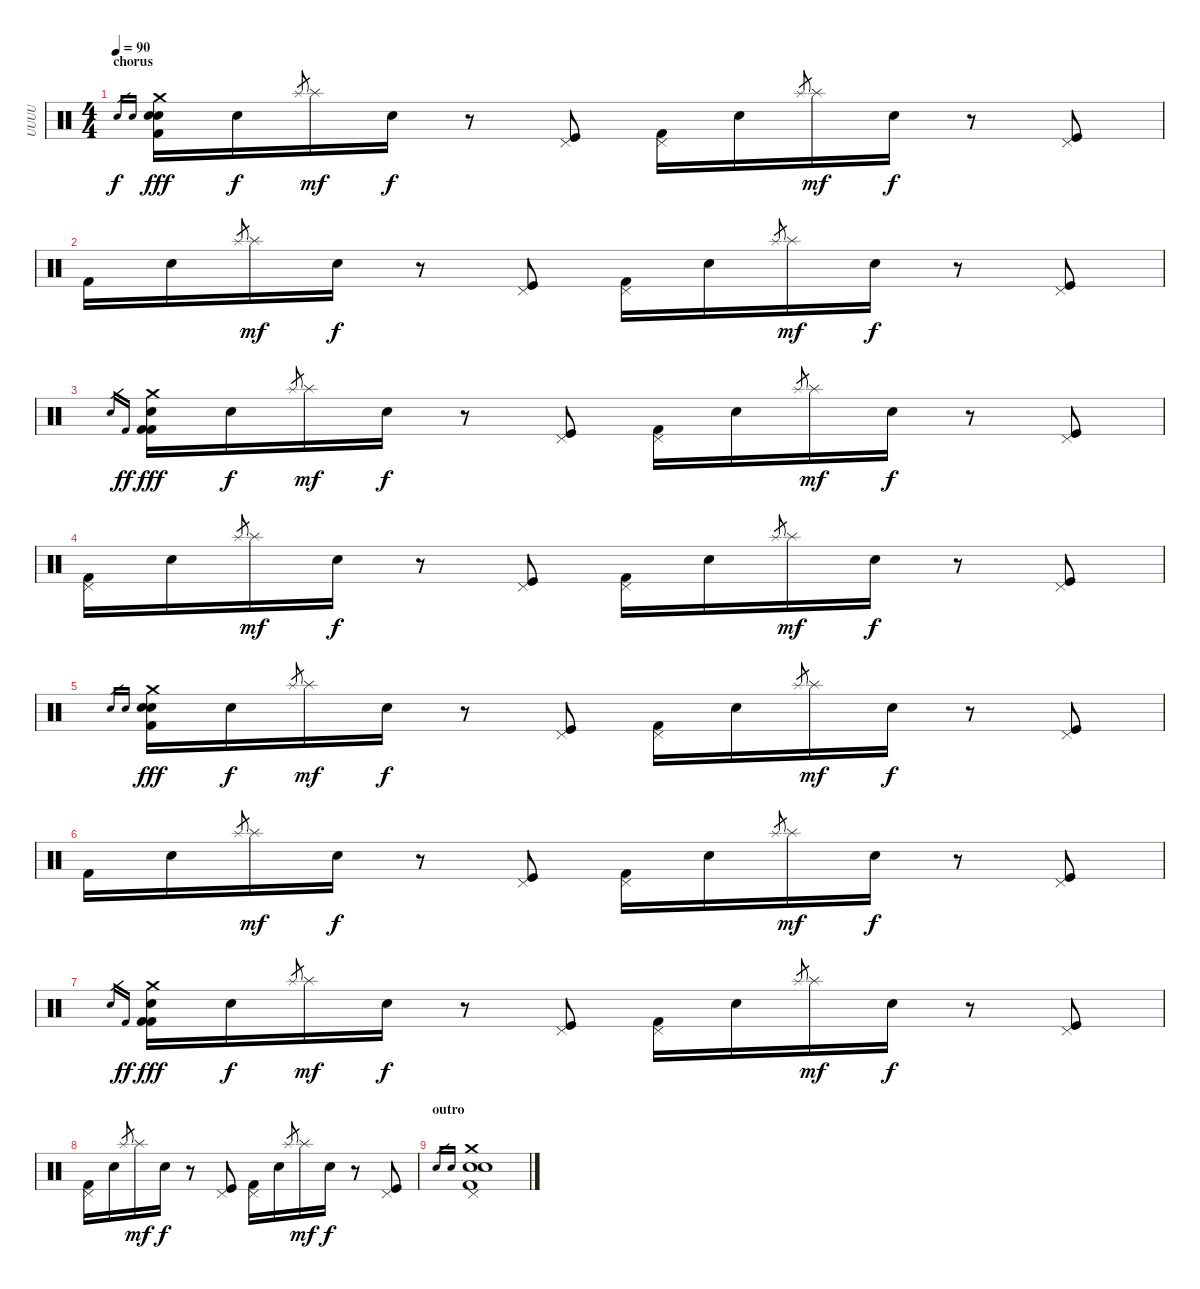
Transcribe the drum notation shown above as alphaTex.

\track ("UUUU" "UUUU") {instrument percussion}
\staff {score}
\articulation defaults
\ts (4 4)
\section ("" "chorus")
\tempo 90
\clef neutral
\ks c "Electric Snare (hit)".16{gr dy f} "Snare (hit) 2".16{gr}
("Crash medium (hit)" "Kick (hit) 2" "Electric Snare (hit)" "Snare (hit) 2").16{dy fff} "Snare (hit) 2".16{dy f} "Splash (hit)".8{gr} "Splash (hit)".16{dy mf} "Electric Snare (hit)".16{dy f} r.8 ("Pedal Hi-Hat (hit)" "Kick (hit)").8 ("Pedal Hi-Hat (hit)" "Kick (hit) 2").16 "Snare (hit) 2".16 "Splash (hit)"{h}.8{gr} "Splash (hit)".16{dy mf} "Electric Snare (hit)".16{dy f} r.8 ("Pedal Hi-Hat (hit)" "Kick (hit)").8 |
"Kick (hit) 2".16 "Snare (hit) 2".16 "Splash (hit)".8{gr} "Splash (hit)".16{dy mf} "Electric Snare (hit)".16{dy f} r.8 ("Pedal Hi-Hat (hit)" "Kick (hit)").8 ("Pedal Hi-Hat (hit)" "Kick (hit) 2").16 "Snare (hit) 2".16 "Splash (hit)".8{gr} "Splash (hit)".16{dy mf} "Electric Snare (hit)".16{dy f} r.8 ("Pedal Hi-Hat (hit)" "Kick (hit)").8 |
"Electric Snare (hit)".16{gr} "Kick (hit) 2".16{gr dy ff} ("Crash medium (hit)" "Kick (hit) 2" "Electric Snare (hit)" "Kick (hit) 2").16{dy fff} "Snare (hit) 2".16{dy f} "Splash (hit)".8{gr} "Splash (hit)".16{dy mf} "Electric Snare (hit)".16{dy f} r.8 ("Pedal Hi-Hat (hit)" "Kick (hit)").8 ("Pedal Hi-Hat (hit)" "Kick (hit) 2").16 "Snare (hit) 2".16 "Splash (hit)".8{gr} "Splash (hit)".16{dy mf} "Electric Snare (hit)".16{dy f} r.8 ("Pedal Hi-Hat (hit)" "Kick (hit)").8 |
("Pedal Hi-Hat (hit)" "Kick (hit) 2").16 "Snare (hit) 2".16 "Splash (hit)".8{gr} "Splash (hit)".16{dy mf} "Electric Snare (hit)".16{dy f} r.8 ("Pedal Hi-Hat (hit)" "Kick (hit)").8 ("Pedal Hi-Hat (hit)" "Kick (hit) 2").16 "Snare (hit) 2".16 "Splash (hit)"{h}.8{gr} "Splash (hit)".16{dy mf} "Electric Snare (hit)".16{dy f} r.8 ("Pedal Hi-Hat (hit)" "Kick (hit)").8 |
"Electric Snare (hit)".16{gr} "Snare (hit) 2".16{gr} ("Crash medium (hit)" "Kick (hit) 2" "Electric Snare (hit)" "Snare (hit) 2").16{dy fff} "Snare (hit) 2".16{dy f} "Splash (hit)".8{gr} "Splash (hit)".16{dy mf} "Electric Snare (hit)".16{dy f} r.8 ("Pedal Hi-Hat (hit)" "Kick (hit)").8 ("Pedal Hi-Hat (hit)" "Kick (hit) 2").16 "Snare (hit) 2".16 "Splash (hit)"{h}.8{gr} "Splash (hit)".16{dy mf} "Electric Snare (hit)".16{dy f} r.8 ("Pedal Hi-Hat (hit)" "Kick (hit)").8 |
"Kick (hit) 2".16 "Snare (hit) 2".16 "Splash (hit)".8{gr} "Splash (hit)".16{dy mf} "Electric Snare (hit)".16{dy f} r.8 ("Pedal Hi-Hat (hit)" "Kick (hit)").8 ("Pedal Hi-Hat (hit)" "Kick (hit) 2").16 "Snare (hit) 2".16 "Splash (hit)".8{gr} "Splash (hit)".16{dy mf} "Electric Snare (hit)".16{dy f} r.8 ("Pedal Hi-Hat (hit)" "Kick (hit)").8 |
"Electric Snare (hit)".16{gr} "Kick (hit) 2".16{gr dy ff} ("Crash medium (hit)" "Kick (hit) 2" "Electric Snare (hit)" "Kick (hit) 2").16{dy fff} "Snare (hit) 2".16{dy f} "Splash (hit)".8{gr} "Splash (hit)".16{dy mf} "Electric Snare (hit)".16{dy f} r.8 ("Pedal Hi-Hat (hit)" "Kick (hit)").8 ("Pedal Hi-Hat (hit)" "Kick (hit) 2").16 "Snare (hit) 2".16 "Splash (hit)".8{gr} "Splash (hit)".16{dy mf} "Electric Snare (hit)".16{dy f} r.8 ("Pedal Hi-Hat (hit)" "Kick (hit)").8 |
("Pedal Hi-Hat (hit)" "Kick (hit) 2").16 "Snare (hit) 2".16 "Splash (hit)".8{gr} "Splash (hit)".16{dy mf} "Electric Snare (hit)".16{dy f} r.8 ("Pedal Hi-Hat (hit)" "Kick (hit)").8 ("Pedal Hi-Hat (hit)" "Kick (hit) 2").16 "Snare (hit) 2".16 "Splash (hit)"{h}.8{gr} "Splash (hit)".16{dy mf} "Electric Snare (hit)".16{dy f} r.8 ("Pedal Hi-Hat (hit)" "Kick (hit)").8 |
\section ("" "outro")
"Snare (hit) 2".16{gr} "Electric Snare (hit)".16{gr} ("Crash medium (hit)" "Pedal Hi-Hat (hit)" "Kick (hit) 2" "Snare (hit) 2" "Electric Snare (hit)").1
